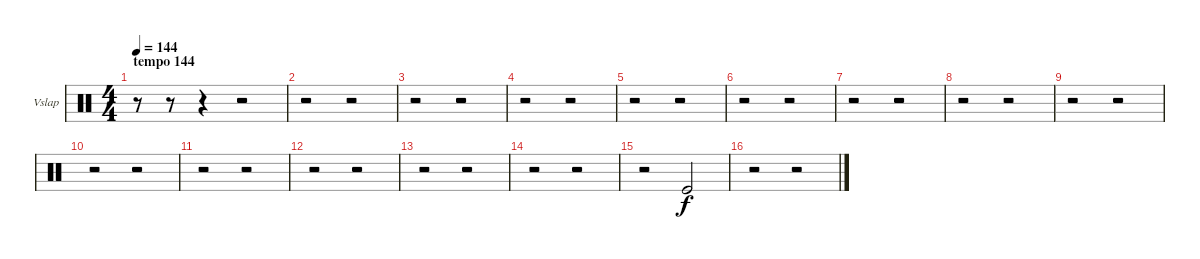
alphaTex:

\bracketExtendMode groupsimilarinstruments
\firstSystemTrackNameOrientation horizontal
\otherSystemsTrackNameOrientation horizontal
\track ("Vibraslap" "Vslap") {instrument percussion}
\staff {score}
\articulation defaults
\ts (4 4)
\beaming (8 2 2 2 2)
\section ("" "tempo 144")
\tempo 144
\clef neutral
\ks c
r.8{dy f} r.8 r.4 r.2 |
r.2 r.2 |
r.2 r.2 |
r.2 r.2 |
r.2 r.2 |
r.2 r.2 |
r.2 r.2 |
r.2 r.2 |
r.2 r.2 |
r.2 r.2 |
r.2 r.2 |
r.2 r.2 |
r.2 r.2 |
r.2 r.2 |
r.2 "Kick (hit)".2 |
r.2 r.2
